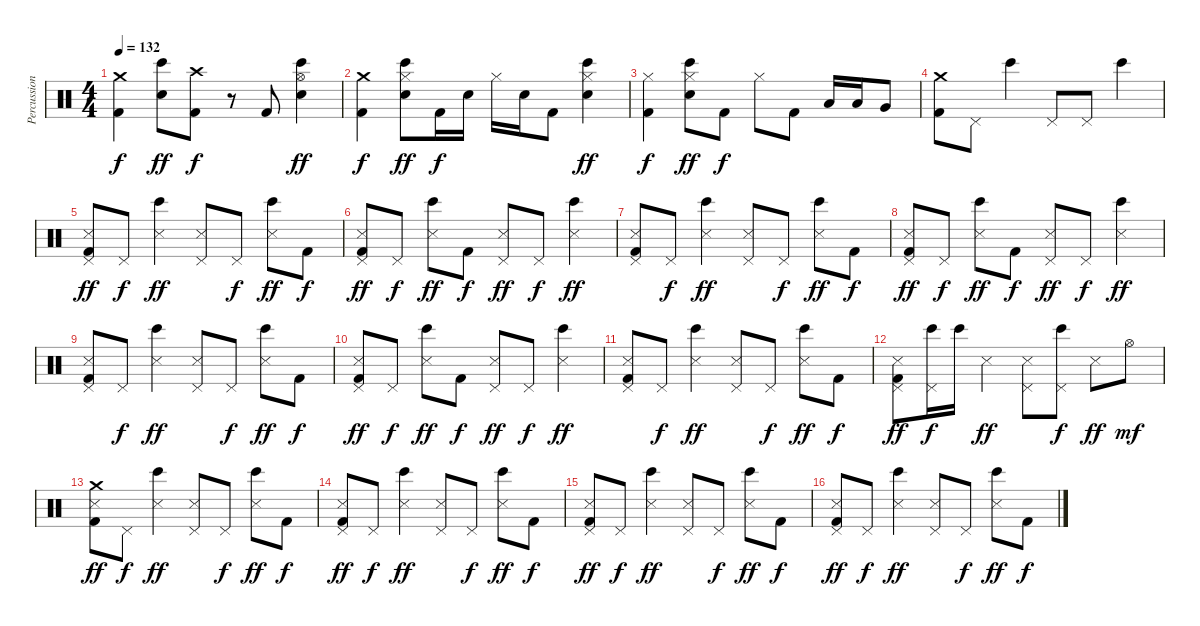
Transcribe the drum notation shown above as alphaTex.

\track ("Percussion" "Percussion") {instrument percussion}
\staff {score}
\articulation defaults
\ts (4 4)
\tempo 132
\clef neutral
\ks c
("Crash medium (hit)" "Kick (hit) 2").4{dy f} ("Bongo High (hit)" "Snare (hit) 2").8{dy ff} ("Crash high (hit)" "Kick (hit) 2").8{dy f} r.8 "Kick (hit) 2".8 ("Hi-Hat (open)" "Bongo High (hit)" "Snare (hit) 2").4{dy ff} |
("Crash medium (hit)" "Kick (hit) 2").4{dy f} ("Hi-Hat (closed)" "Bongo High (hit)" "Snare (hit) 2").8{dy ff} "Kick (hit) 2".16{dy f} "Snare (hit) 2".16 "Hi-Hat (closed)".16 "Snare (hit) 2".16 "Kick (hit) 2".8 ("Hi-Hat (closed)" "Bongo High (hit)" "Snare (hit) 2").4{dy ff} |
("Hi-Hat (closed)" "Kick (hit) 2").4{dy f} ("Hi-Hat (closed)" "Bongo High (hit)" "Snare (hit) 2").8{dy ff} "Kick (hit) 2".8{dy f} "Hi-Hat (closed)".8 "Kick (hit) 2".8 "Low Tom (hit)".16 "Low Tom (hit)".16 "Very Low Tom (hit)".8 |
("Crash medium (hit)" "Kick (hit) 2").8 "Pedal Hi-Hat (hit)".8 "Bongo High (hit)".4 "Pedal Hi-Hat (hit)".8 "Pedal Hi-Hat (hit)".8 "Bongo High (hit)".4 |
("Pedal Hi-Hat (hit)" "Snare (side stick) 3" "Kick (hit) 2").8{dy ff} "Pedal Hi-Hat (hit)".8{dy f} ("Bongo High (hit)" "Snare (side stick) 3").4{dy ff} ("Pedal Hi-Hat (hit)" "Snare (side stick) 3").8 "Pedal Hi-Hat (hit)".8{dy f} ("Bongo High (hit)" "Snare (side stick) 3").8{dy ff} "Kick (hit) 2".8{dy f} |
("Pedal Hi-Hat (hit)" "Snare (side stick) 3" "Kick (hit) 2").8{dy ff} "Pedal Hi-Hat (hit)".8{dy f} ("Bongo High (hit)" "Snare (side stick) 3").8{dy ff} "Kick (hit) 2".8{dy f} ("Pedal Hi-Hat (hit)" "Snare (side stick) 3").8{dy ff} "Pedal Hi-Hat (hit)".8{dy f} ("Bongo High (hit)" "Snare (side stick) 3").4{dy ff} |
("Pedal Hi-Hat (hit)" "Snare (side stick) 3" "Kick (hit) 2").8 "Pedal Hi-Hat (hit)".8{dy f} ("Bongo High (hit)" "Snare (side stick) 3").4{dy ff} ("Pedal Hi-Hat (hit)" "Snare (side stick) 3").8 "Pedal Hi-Hat (hit)".8{dy f} ("Bongo High (hit)" "Snare (side stick) 3").8{dy ff} "Kick (hit) 2".8{dy f} |
("Pedal Hi-Hat (hit)" "Snare (side stick) 3" "Kick (hit) 2").8{dy ff} "Pedal Hi-Hat (hit)".8{dy f} ("Bongo High (hit)" "Snare (side stick) 3").8{dy ff} "Kick (hit) 2".8{dy f} ("Pedal Hi-Hat (hit)" "Snare (side stick) 3").8{dy ff} "Pedal Hi-Hat (hit)".8{dy f} ("Bongo High (hit)" "Snare (side stick) 3").4{dy ff} |
("Pedal Hi-Hat (hit)" "Snare (side stick) 3" "Kick (hit) 2").8 "Pedal Hi-Hat (hit)".8{dy f} ("Bongo High (hit)" "Snare (side stick) 3").4{dy ff} ("Pedal Hi-Hat (hit)" "Snare (side stick) 3").8 "Pedal Hi-Hat (hit)".8{dy f} ("Bongo High (hit)" "Snare (side stick) 3").8{dy ff} "Kick (hit) 2".8{dy f} |
("Pedal Hi-Hat (hit)" "Snare (side stick) 3" "Kick (hit) 2").8{dy ff} "Pedal Hi-Hat (hit)".8{dy f} ("Bongo High (hit)" "Snare (side stick) 3").8{dy ff} "Kick (hit) 2".8{dy f} ("Pedal Hi-Hat (hit)" "Snare (side stick) 3").8{dy ff} "Pedal Hi-Hat (hit)".8{dy f} ("Bongo High (hit)" "Snare (side stick) 3").4{dy ff} |
("Pedal Hi-Hat (hit)" "Snare (side stick) 3" "Kick (hit) 2").8 "Pedal Hi-Hat (hit)".8{dy f} ("Bongo High (hit)" "Snare (side stick) 3").4{dy ff} ("Pedal Hi-Hat (hit)" "Snare (side stick) 3").8 "Pedal Hi-Hat (hit)".8{dy f} ("Bongo High (hit)" "Snare (side stick) 3").8{dy ff} "Kick (hit) 2".8{dy f} |
("Pedal Hi-Hat (hit)" "Snare (side stick) 3" "Kick (hit) 2").8{dy ff} ("Pedal Hi-Hat (hit)" "Bongo High (hit)").16{dy f} "Bongo High (hit)".16 "Snare (side stick) 3".4{dy ff} ("Pedal Hi-Hat (hit)" "Snare (side stick) 3").8 ("Pedal Hi-Hat (hit)" "Bongo High (hit)").8{dy f} "Snare (side stick) 3".8{dy ff} "Hi-Hat (open)".8{dy mf} |
("Crash medium (hit)" "Snare (side stick) 3" "Kick (hit) 2").8{dy ff} "Pedal Hi-Hat (hit)".8{dy f} ("Bongo High (hit)" "Snare (side stick) 3").4{dy ff} ("Pedal Hi-Hat (hit)" "Snare (side stick) 3").8 "Pedal Hi-Hat (hit)".8{dy f} ("Bongo High (hit)" "Snare (side stick) 3").8{dy ff} "Kick (hit) 2".8{dy f} |
("Pedal Hi-Hat (hit)" "Snare (side stick) 3" "Kick (hit) 2").8{dy ff} "Pedal Hi-Hat (hit)".8{dy f} ("Bongo High (hit)" "Snare (side stick) 3").4{dy ff} ("Pedal Hi-Hat (hit)" "Snare (side stick) 3").8 "Pedal Hi-Hat (hit)".8{dy f} ("Bongo High (hit)" "Snare (side stick) 3").8{dy ff} "Kick (hit) 2".8{dy f} |
("Pedal Hi-Hat (hit)" "Snare (side stick) 3" "Kick (hit) 2").8{dy ff} "Pedal Hi-Hat (hit)".8{dy f} ("Bongo High (hit)" "Snare (side stick) 3").4{dy ff} ("Pedal Hi-Hat (hit)" "Snare (side stick) 3").8 "Pedal Hi-Hat (hit)".8{dy f} ("Bongo High (hit)" "Snare (side stick) 3").8{dy ff} "Kick (hit) 2".8{dy f} |
("Pedal Hi-Hat (hit)" "Snare (side stick) 3" "Kick (hit) 2").8{dy ff} "Pedal Hi-Hat (hit)".8{dy f} ("Bongo High (hit)" "Snare (side stick) 3").4{dy ff} ("Pedal Hi-Hat (hit)" "Snare (side stick) 3").8 "Pedal Hi-Hat (hit)".8{dy f} ("Bongo High (hit)" "Snare (side stick) 3").8{dy ff} "Kick (hit) 2".8{dy f}
